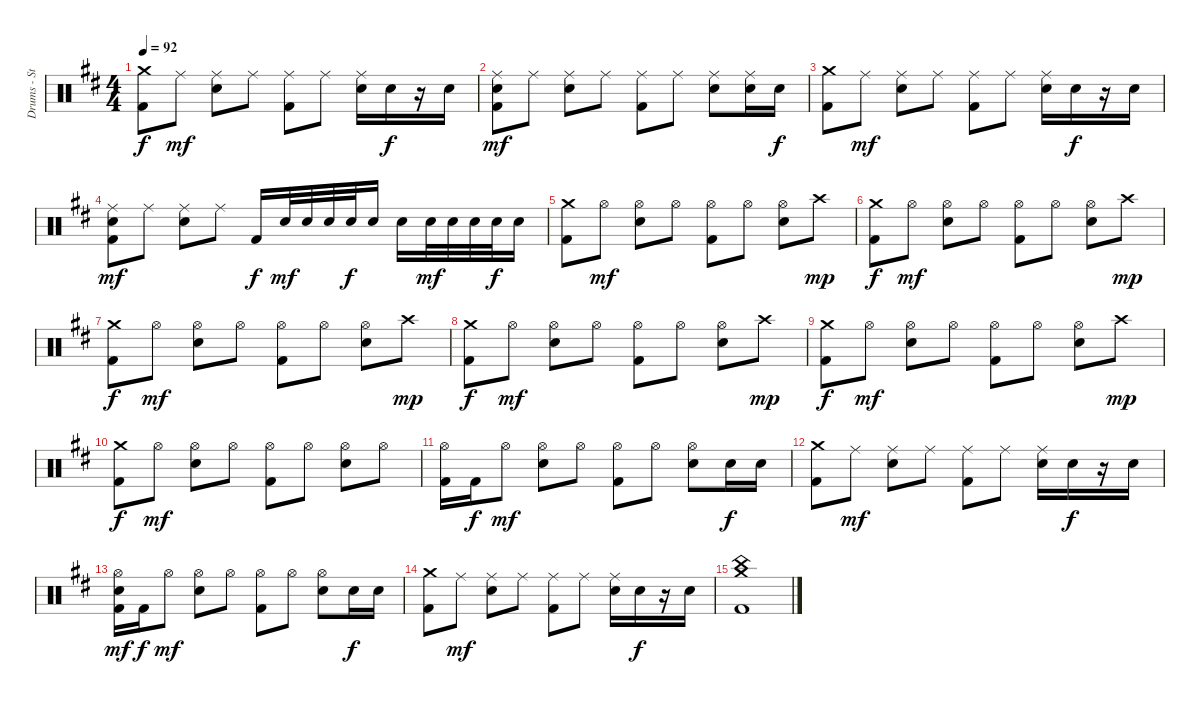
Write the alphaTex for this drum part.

\track ("Drums - Steve Wacholz" "Drums - St") {instrument percussion}
\staff {score}
\articulation defaults
\ts (4 4)
\tempo 92
\clef neutral
\ks d
("Crash medium (hit)" "Kick (hit) 2").8{dy f} "Ride (middle)".8{dy mf} ("Ride (middle)" "Electric Snare (hit)").8 "Ride (middle)".8 ("Ride (middle)" "Kick (hit) 2").8 "Ride (middle)".8 ("Ride (middle)" "Electric Snare (hit)").16 "Electric Snare (hit)".16{dy f} r.16 "Electric Snare (hit)".16 |
("Ride (middle)" "Electric Snare (hit)" "Kick (hit) 2").8{dy mf} "Ride (middle)".8 ("Ride (middle)" "Electric Snare (hit)").8 "Ride (middle)".8 ("Ride (middle)" "Kick (hit) 2").8 "Ride (middle)".8 ("Ride (middle)" "Electric Snare (hit)").8 ("Ride (middle)" "Electric Snare (hit)").16 "Electric Snare (hit)".16{dy f} |
("Crash medium (hit)" "Kick (hit) 2").8 "Ride (middle)".8{dy mf} ("Ride (middle)" "Electric Snare (hit)").8 "Ride (middle)".8 ("Ride (middle)" "Kick (hit) 2").8 "Ride (middle)".8 ("Ride (middle)" "Electric Snare (hit)").16 "Electric Snare (hit)".16{dy f} r.16 "Electric Snare (hit)".16 |
("Ride (middle)" "Electric Snare (hit)" "Kick (hit) 2").8{dy mf} "Ride (middle)".8 ("Ride (middle)" "Electric Snare (hit)").8 "Ride (middle)".8 "Kick (hit) 2".16{dy f} "Electric Snare (hit)".32{dy mf} "Electric Snare (hit)".32 "Electric Snare (hit)".32 "Electric Snare (hit)".32{dy f} "Electric Snare (hit)".16 "Electric Snare (hit)".16 "Electric Snare (hit)".32{dy mf} "Electric Snare (hit)".32 "Electric Snare (hit)".32 "Electric Snare (hit)".32{dy f} "Electric Snare (hit)".16 |
("Crash medium (hit)" "Kick (hit) 2").8 "Hi-Hat (open)".8{dy mf} ("Hi-Hat (open)" "Electric Snare (hit)").8 "Hi-Hat (open)".8 ("Hi-Hat (open)" "Kick (hit) 2").8 "Hi-Hat (open)".8 ("Hi-Hat (open)" "Electric Snare (hit)").8 "Crash high (hit)".8{dy mp} |
("Crash medium (hit)" "Kick (hit) 2").8{dy f} "Hi-Hat (open)".8{dy mf} ("Hi-Hat (open)" "Electric Snare (hit)").8 "Hi-Hat (open)".8 ("Hi-Hat (open)" "Kick (hit) 2").8 "Hi-Hat (open)".8 ("Hi-Hat (open)" "Electric Snare (hit)").8 "Crash high (hit)".8{dy mp} |
("Crash medium (hit)" "Kick (hit) 2").8{dy f} "Hi-Hat (open)".8{dy mf} ("Hi-Hat (open)" "Electric Snare (hit)").8 "Hi-Hat (open)".8 ("Hi-Hat (open)" "Kick (hit) 2").8 "Hi-Hat (open)".8 ("Hi-Hat (open)" "Electric Snare (hit)").8 "Crash high (hit)".8{dy mp} |
("Crash medium (hit)" "Kick (hit) 2").8{dy f} "Hi-Hat (open)".8{dy mf} ("Hi-Hat (open)" "Electric Snare (hit)").8 "Hi-Hat (open)".8 ("Hi-Hat (open)" "Kick (hit) 2").8 "Hi-Hat (open)".8 ("Hi-Hat (open)" "Electric Snare (hit)").8 "Crash high (hit)".8{dy mp} |
("Crash medium (hit)" "Kick (hit) 2").8{dy f} "Hi-Hat (open)".8{dy mf} ("Hi-Hat (open)" "Electric Snare (hit)").8 "Hi-Hat (open)".8 ("Hi-Hat (open)" "Kick (hit) 2").8 "Hi-Hat (open)".8 ("Hi-Hat (open)" "Electric Snare (hit)").8 "Crash high (hit)".8{dy mp} |
("Crash medium (hit)" "Kick (hit) 2").8{dy f} "Hi-Hat (open)".8{dy mf} ("Hi-Hat (open)" "Electric Snare (hit)").8 "Hi-Hat (open)".8 ("Hi-Hat (open)" "Kick (hit) 2").8 "Hi-Hat (open)".8 ("Hi-Hat (open)" "Electric Snare (hit)").8 "Hi-Hat (open)".8 |
("Hi-Hat (open)" "Kick (hit) 2").16 "Kick (hit) 2".16{dy f} "Hi-Hat (open)".8{dy mf} ("Hi-Hat (open)" "Electric Snare (hit)").8 "Hi-Hat (open)".8 ("Hi-Hat (open)" "Kick (hit) 2").8 "Hi-Hat (open)".8 ("Hi-Hat (open)" "Electric Snare (hit)").8 "Electric Snare (hit)".16{dy f} "Electric Snare (hit)".16 |
("Crash medium (hit)" "Kick (hit) 2").8 "Ride (middle)".8{dy mf} ("Ride (middle)" "Electric Snare (hit)").8 "Ride (middle)".8 ("Ride (middle)" "Kick (hit) 2").8 "Ride (middle)".8 ("Ride (middle)" "Electric Snare (hit)").16 "Electric Snare (hit)".16{dy f} r.16 "Electric Snare (hit)".16 |
("Hi-Hat (open)" "Electric Snare (hit)" "Kick (hit) 2").16{dy mf} "Kick (hit) 2".16{dy f} "Hi-Hat (open)".8{dy mf} ("Hi-Hat (open)" "Electric Snare (hit)").8 "Hi-Hat (open)".8 ("Hi-Hat (open)" "Kick (hit) 2").8 "Hi-Hat (open)".8 ("Hi-Hat (open)" "Electric Snare (hit)").8 "Electric Snare (hit)".16{dy f} "Electric Snare (hit)".16 |
("Crash medium (hit)" "Kick (hit) 2").8 "Ride (middle)".8{dy mf} ("Ride (middle)" "Electric Snare (hit)").8 "Ride (middle)".8 ("Ride (middle)" "Kick (hit) 2").8 "Ride (middle)".8 ("Ride (middle)" "Electric Snare (hit)").16 "Electric Snare (hit)".16{dy f} r.16 "Electric Snare (hit)".16 |
("Crash medium (hit)" "China (hit)" "Kick (hit) 2").1
